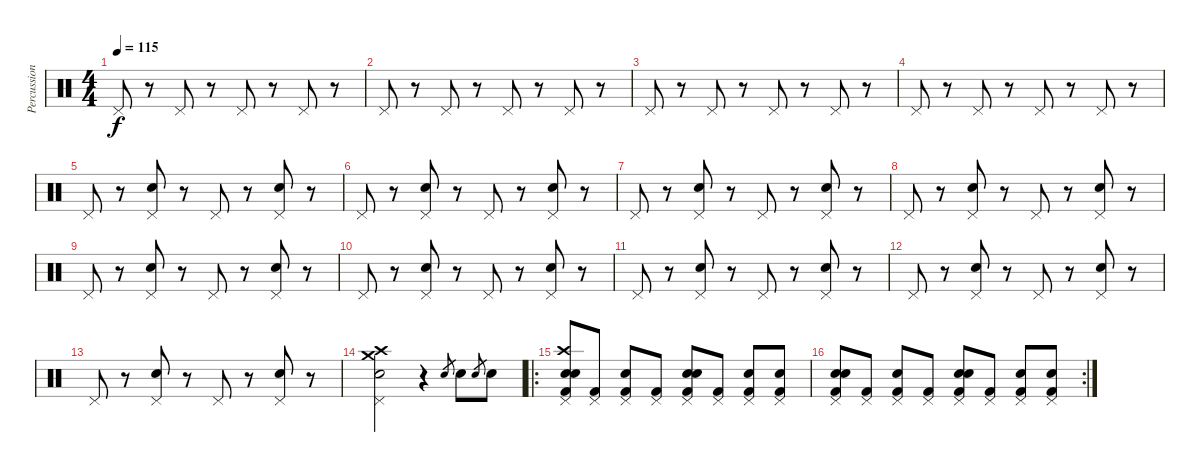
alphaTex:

\track ("Percussions" "Percussion") {instrument percussion}
\staff {score}
\articulation defaults
\ts (4 4)
\tempo 115
\clef neutral
\ks c "Pedal Hi-Hat (hit)".8{dy f}
r.8 "Pedal Hi-Hat (hit)".8 r.8 "Pedal Hi-Hat (hit)".8 r.8 "Pedal Hi-Hat (hit)".8 r.8 |
"Pedal Hi-Hat (hit)".8 r.8 "Pedal Hi-Hat (hit)".8 r.8 "Pedal Hi-Hat (hit)".8 r.8 "Pedal Hi-Hat (hit)".8 r.8 |
"Pedal Hi-Hat (hit)".8 r.8 "Pedal Hi-Hat (hit)".8 r.8 "Pedal Hi-Hat (hit)".8 r.8 "Pedal Hi-Hat (hit)".8 r.8 |
"Pedal Hi-Hat (hit)".8 r.8 "Pedal Hi-Hat (hit)".8 r.8 "Pedal Hi-Hat (hit)".8 r.8 "Pedal Hi-Hat (hit)".8 r.8 |
"Pedal Hi-Hat (hit)".8 r.8 ("Pedal Hi-Hat (hit)" "Snare (hit) 2").8 r.8 "Pedal Hi-Hat (hit)".8 r.8 ("Pedal Hi-Hat (hit)" "Snare (hit) 2").8 r.8 |
"Pedal Hi-Hat (hit)".8 r.8 ("Pedal Hi-Hat (hit)" "Snare (hit) 2").8 r.8 "Pedal Hi-Hat (hit)".8 r.8 ("Pedal Hi-Hat (hit)" "Snare (hit) 2").8 r.8 |
"Pedal Hi-Hat (hit)".8 r.8 ("Pedal Hi-Hat (hit)" "Snare (hit) 2").8 r.8 "Pedal Hi-Hat (hit)".8 r.8 ("Pedal Hi-Hat (hit)" "Snare (hit) 2").8 r.8 |
"Pedal Hi-Hat (hit)".8 r.8 ("Pedal Hi-Hat (hit)" "Snare (hit) 2").8 r.8 "Pedal Hi-Hat (hit)".8 r.8 ("Pedal Hi-Hat (hit)" "Snare (hit) 2").8 r.8 |
"Pedal Hi-Hat (hit)".8 r.8 ("Pedal Hi-Hat (hit)" "Snare (hit) 2").8 r.8 "Pedal Hi-Hat (hit)".8 r.8 ("Pedal Hi-Hat (hit)" "Snare (hit) 2").8 r.8 |
"Pedal Hi-Hat (hit)".8 r.8 ("Pedal Hi-Hat (hit)" "Snare (hit) 2").8 r.8 "Pedal Hi-Hat (hit)".8 r.8 ("Pedal Hi-Hat (hit)" "Snare (hit) 2").8 r.8 |
"Pedal Hi-Hat (hit)".8 r.8 ("Pedal Hi-Hat (hit)" "Snare (hit) 2").8 r.8 "Pedal Hi-Hat (hit)".8 r.8 ("Pedal Hi-Hat (hit)" "Snare (hit) 2").8 r.8 |
"Pedal Hi-Hat (hit)".8 r.8 ("Pedal Hi-Hat (hit)" "Snare (hit) 2").8 r.8 "Pedal Hi-Hat (hit)".8 r.8 ("Pedal Hi-Hat (hit)" "Snare (hit) 2").8 r.8 |
"Pedal Hi-Hat (hit)".8 r.8 ("Pedal Hi-Hat (hit)" "Snare (hit) 2").8 r.8 "Pedal Hi-Hat (hit)".8 r.8 ("Pedal Hi-Hat (hit)" "Snare (hit) 2").8 r.8 |
("Crash medium (hit)" "Crash high (hit)" "Pedal Hi-Hat (hit)" "Snare (hit) 2").2 r.4 "Snare (hit) 2".8{gr} "Snare (hit) 2".8 "Snare (hit) 2".8{gr} "Snare (hit) 2".8 |
\ro
("Crash high (hit)" "Hand Clap (hit)" "Pedal Hi-Hat (hit)" "Snare (hit) 2" "Kick (hit) 2").8 ("Pedal Hi-Hat (hit)" "Kick (hit) 2").8 ("Pedal Hi-Hat (hit)" "Snare (hit) 2" "Kick (hit) 2").8 ("Pedal Hi-Hat (hit)" "Kick (hit) 2").8 ("Hand Clap (hit)" "Pedal Hi-Hat (hit)" "Snare (hit) 2" "Kick (hit) 2").8 ("Pedal Hi-Hat (hit)" "Kick (hit) 2").8 ("Pedal Hi-Hat (hit)" "Snare (hit) 2" "Kick (hit) 2").8 ("Pedal Hi-Hat (hit)" "Snare (hit) 2" "Kick (hit) 2").8 |
\rc 2
("Hand Clap (hit)" "Pedal Hi-Hat (hit)" "Snare (hit) 2" "Kick (hit) 2").8 ("Pedal Hi-Hat (hit)" "Kick (hit) 2").8 ("Pedal Hi-Hat (hit)" "Snare (hit) 2" "Kick (hit) 2").8 ("Pedal Hi-Hat (hit)" "Kick (hit) 2").8 ("Hand Clap (hit)" "Pedal Hi-Hat (hit)" "Snare (hit) 2" "Kick (hit) 2").8 ("Pedal Hi-Hat (hit)" "Kick (hit) 2").8 ("Pedal Hi-Hat (hit)" "Snare (hit) 2" "Kick (hit) 2").8 ("Pedal Hi-Hat (hit)" "Snare (hit) 2" "Kick (hit) 2").8
